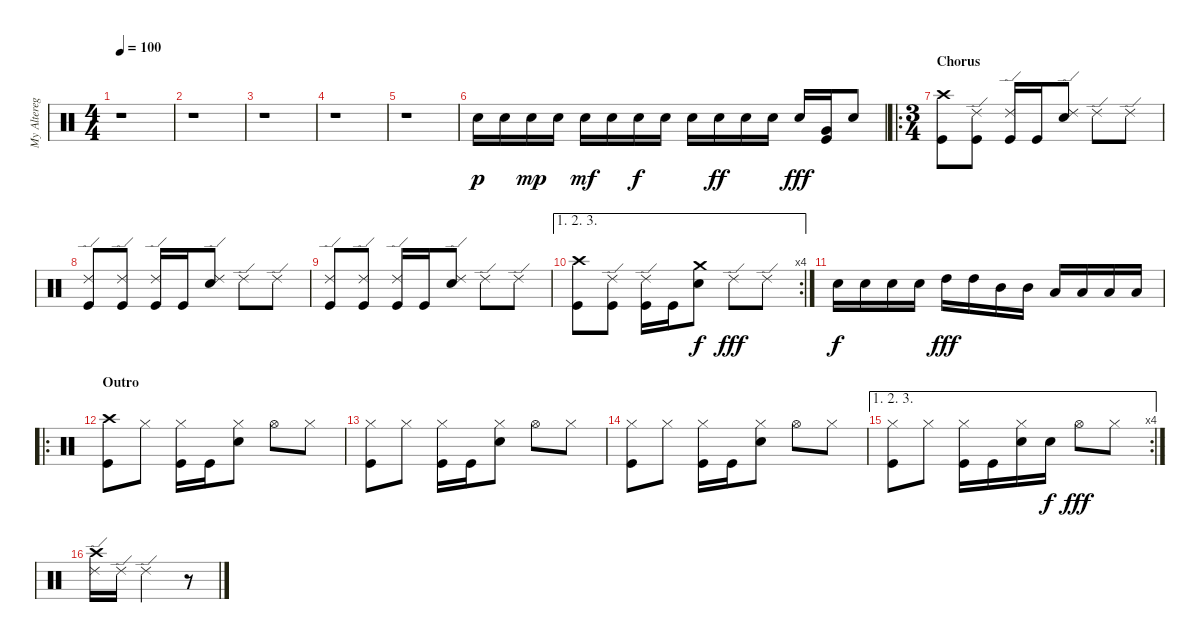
\track ("My Alterego Playing Drums" "My Altereg") {instrument percussion}
\staff {score}
\articulation defaults
\ts (4 4)
\tempo 100
\clef neutral
\ks c
r.1{dy ff} |
r.1 |
r.1 |
r.1 |
r.1 |
"Snare (hit) 2".16{dy p} "Snare (hit) 2".16 "Snare (hit) 2".16{dy mp} "Snare (hit) 2".16 "Snare (hit) 2".16{dy mf} "Snare (hit) 2".16 "Snare (hit) 2".16{dy f} "Snare (hit) 2".16 "Snare (hit) 2".16 "Snare (hit) 2".16{dy ff} "Snare (hit) 2".16 "Snare (hit) 2".16 "Snare (hit) 2".16{dy fff} ("Very Low Tom (hit)" "Kick (hit)").16 "Snare (hit) 2".8 |
\ro
\ts (3 4)
\section ("" "Chorus")
("Crash high (hit)" "Kick (hit)").8 ("Ride (edge) 2" "Kick (hit)").8 ("Ride (edge) 2" "Kick (hit)").16 "Kick (hit)".16 ("Ride (edge) 2" "Snare (hit) 2").8 "Ride (edge) 2".8 "Ride (edge) 2".8 |
("Ride (edge) 2" "Kick (hit)").8 ("Ride (edge) 2" "Kick (hit)").8 ("Ride (edge) 2" "Kick (hit)").16 "Kick (hit)".16 ("Ride (edge) 2" "Snare (hit) 2").8 "Ride (edge) 2".8 "Ride (edge) 2".8 |
("Ride (edge) 2" "Kick (hit)").8 ("Ride (edge) 2" "Kick (hit)").8 ("Ride (edge) 2" "Kick (hit)").16 "Kick (hit)".16 ("Ride (edge) 2" "Snare (hit) 2").8 "Ride (edge) 2".8 "Ride (edge) 2".8 |
\ae (1 2 3)
\rc 4
("Crash high (hit)" "Kick (hit)").8 ("Ride (edge) 2" "Kick (hit)").8 ("Ride (edge) 2" "Kick (hit)").16 "Kick (hit)".16 ("Crash medium (hit)" "Snare (hit) 2").8{dy f} "Ride (edge) 2".8{dy fff} "Ride (edge) 2".8 |
"Snare (hit) 2".16{dy f} "Snare (hit) 2".16 "Snare (hit) 2".16 "Snare (hit) 2".16 "High Tom (hit)".16{dy fff} "High Tom (hit)".16 "Mid Tom (hit)".16 "Mid Tom (hit)".16 "Low Tom (hit)".16 "Low Tom (hit)".16 "Low Tom (hit)".16 "Low Tom (hit)".16 |
\ro
\section ("" "Outro")
("Crash high (hit)" "Kick (hit)").8 "Hi-Hat (closed)".8 ("Hi-Hat (closed)" "Kick (hit)").16 "Kick (hit)".16 ("Hi-Hat (closed)" "Snare (hit) 2").8 "Hi-Hat (open)".8 "Hi-Hat (closed)".8 |
("Hi-Hat (closed)" "Kick (hit)").8 "Hi-Hat (closed)".8 ("Hi-Hat (closed)" "Kick (hit)").16 "Kick (hit)".16 ("Hi-Hat (closed)" "Snare (hit) 2").8 "Hi-Hat (open)".8 "Hi-Hat (closed)".8 |
("Hi-Hat (closed)" "Kick (hit)").8 "Hi-Hat (closed)".8 ("Hi-Hat (closed)" "Kick (hit)").16 "Kick (hit)".16 ("Hi-Hat (closed)" "Snare (hit) 2").8 "Hi-Hat (open)".8 "Hi-Hat (closed)".8 |
\ae (1 2 3)
\rc 4
("Hi-Hat (closed)" "Kick (hit)").8 "Hi-Hat (closed)".8 ("Hi-Hat (closed)" "Kick (hit)").16 "Kick (hit)".16 ("Hi-Hat (closed)" "Snare (hit) 2").16 "Snare (hit) 2".16{dy f} "Hi-Hat (open)".8{dy fff} "Hi-Hat (closed)".8 |
("Ride (edge) 2" "Crash high (hit)").16 "Ride (edge) 2".16 "Ride (edge) 2".2 r.8
